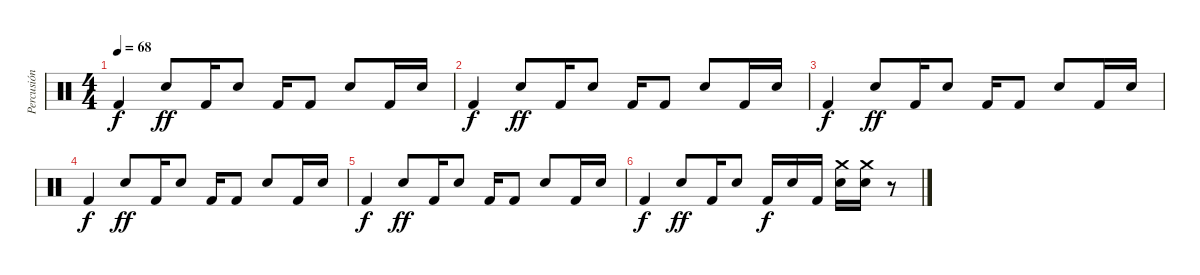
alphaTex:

\track ("Percusión" "Percusión") {instrument percussion}
\staff {score}
\articulation defaults
\ts (4 4)
\tempo 68
\clef neutral
\ks c "Kick (hit) 2".4{dy f} "Snare (hit) 2".8{dy ff} "Kick (hit) 2".16 "Snare (hit) 2".8 "Kick (hit) 2".16 "Kick (hit) 2".8 "Snare (hit) 2".8 "Kick (hit) 2".16 "Snare (hit) 2".16
|
"Kick (hit) 2".4{dy f} "Snare (hit) 2".8{dy ff} "Kick (hit) 2".16 "Snare (hit) 2".8 "Kick (hit) 2".16 "Kick (hit) 2".8 "Snare (hit) 2".8 "Kick (hit) 2".16 "Snare (hit) 2".16 |
"Kick (hit) 2".4{dy f} "Snare (hit) 2".8{dy ff} "Kick (hit) 2".16 "Snare (hit) 2".8 "Kick (hit) 2".16 "Kick (hit) 2".8 "Snare (hit) 2".8 "Kick (hit) 2".16 "Snare (hit) 2".16 |
"Kick (hit) 2".4{dy f} "Snare (hit) 2".8{dy ff} "Kick (hit) 2".16 "Snare (hit) 2".8 "Kick (hit) 2".16 "Kick (hit) 2".8 "Snare (hit) 2".8 "Kick (hit) 2".16 "Snare (hit) 2".16 |
"Kick (hit) 2".4{dy f} "Snare (hit) 2".8{dy ff} "Kick (hit) 2".16 "Snare (hit) 2".8 "Kick (hit) 2".16 "Kick (hit) 2".8 "Snare (hit) 2".8 "Kick (hit) 2".16 "Snare (hit) 2".16 |
"Kick (hit) 2".4{dy f} "Snare (hit) 2".8{dy ff} "Kick (hit) 2".16 "Snare (hit) 2".8 "Kick (hit) 2".16{dy f} "Snare (hit) 2".16 "Kick (hit) 2".16 ("Snare (hit) 2" "Crash medium (hit)").16 ("Snare (hit) 2" "Crash medium (hit)").16 r.8
